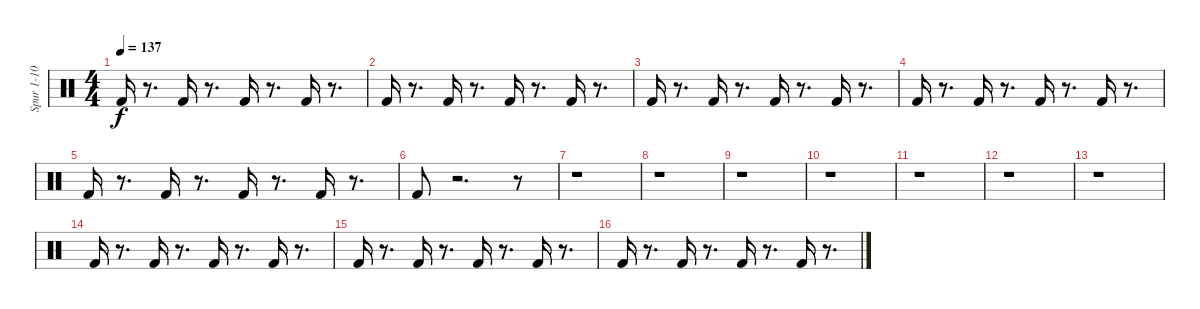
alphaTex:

\track ("Spur 1-10" "Spur 1-10") {instrument percussion}
\staff {score}
\articulation defaults
\ts (4 4)
\tempo 137
\clef neutral
\ks c "Kick (hit) 2".16{dy f}
r.8{d} "Kick (hit) 2".16 r.8{d} "Kick (hit) 2".16 r.8{d} "Kick (hit) 2".16 r.8{d} |
"Kick (hit) 2".16 r.8{d} "Kick (hit) 2".16 r.8{d} "Kick (hit) 2".16 r.8{d} "Kick (hit) 2".16 r.8{d} |
"Kick (hit) 2".16 r.8{d} "Kick (hit) 2".16 r.8{d} "Kick (hit) 2".16 r.8{d} "Kick (hit) 2".16 r.8{d} |
"Kick (hit) 2".16 r.8{d} "Kick (hit) 2".16 r.8{d} "Kick (hit) 2".16 r.8{d} "Kick (hit) 2".16 r.8{d} |
"Kick (hit) 2".16 r.8{d} "Kick (hit) 2".16 r.8{d} "Kick (hit) 2".16 r.8{d} "Kick (hit) 2".16 r.8{d} |
"Kick (hit) 2".8 r.2{d} r.8 |
r.1 |
r.1 |
r.1 |
r.1 |
r.1 |
r.1 |
r.1 |
"Kick (hit) 2".16 r.8{d} "Kick (hit) 2".16 r.8{d} "Kick (hit) 2".16 r.8{d} "Kick (hit) 2".16 r.8{d} |
"Kick (hit) 2".16 r.8{d} "Kick (hit) 2".16 r.8{d} "Kick (hit) 2".16 r.8{d} "Kick (hit) 2".16 r.8{d} |
"Kick (hit) 2".16 r.8{d} "Kick (hit) 2".16 r.8{d} "Kick (hit) 2".16 r.8{d} "Kick (hit) 2".16 r.8{d}
